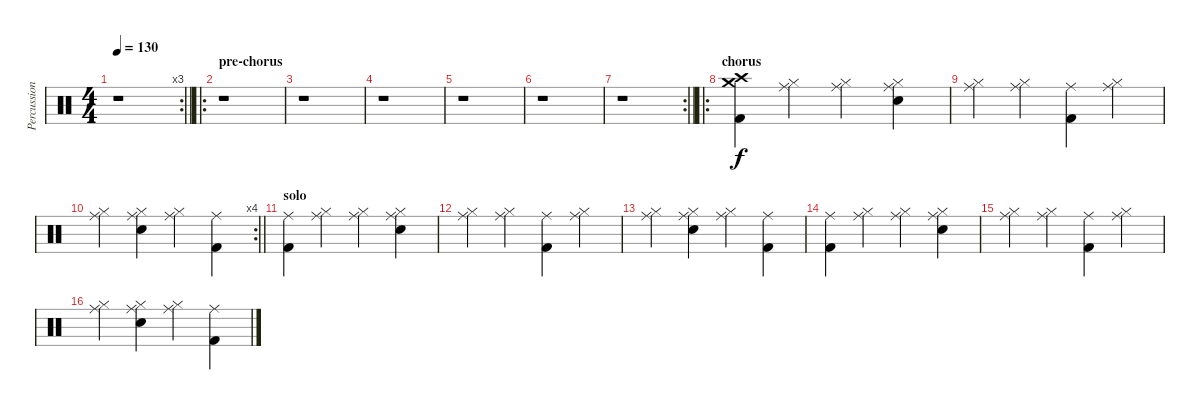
\track ("Percussion" "Percussion") {instrument percussion}
\staff {score}
\articulation defaults
\rc 3
\ts (4 4)
\tempo 130
\clef neutral
\barLineRight lightlight
\ks c
r.1{dy f} |
\ro
\section ("" "pre-chorus")
r.1 |
r.1 |
r.1 |
r.1 |
r.1 |
\rc 2
\barLineRight lightlight
r.1 |
\ro
\section ("" "chorus")
("Crash high (hit)" "Crash medium (hit)" "Kick (hit) 2").4 ("Ride (middle)" "Hi-Hat (closed)").4 ("Ride (middle)" "Hi-Hat (closed)").4 ("Ride (middle)" "Hi-Hat (closed)" "Electric Snare (hit)").4 |
("Ride (middle)" "Hi-Hat (closed)").4 ("Ride (middle)" "Hi-Hat (closed)").4 ("Ride (middle)" "Kick (hit) 2").4 ("Ride (middle)" "Hi-Hat (closed)").4 |
\rc 4
\barLineRight lightlight
("Ride (middle)" "Hi-Hat (closed)").4 ("Ride (middle)" "Hi-Hat (closed)" "Electric Snare (hit)").4 ("Ride (middle)" "Hi-Hat (closed)").4 ("Ride (middle)" "Kick (hit) 2").4 |
\section ("" "solo")
("Ride (middle)" "Kick (hit) 2").4 ("Ride (middle)" "Hi-Hat (closed)").4 ("Ride (middle)" "Hi-Hat (closed)").4 ("Ride (middle)" "Hi-Hat (closed)" "Electric Snare (hit)").4 |
("Ride (middle)" "Hi-Hat (closed)").4 ("Ride (middle)" "Hi-Hat (closed)").4 ("Ride (middle)" "Kick (hit) 2").4 ("Ride (middle)" "Hi-Hat (closed)").4 |
("Ride (middle)" "Hi-Hat (closed)").4 ("Ride (middle)" "Hi-Hat (closed)" "Electric Snare (hit)").4 ("Ride (middle)" "Hi-Hat (closed)").4 ("Ride (middle)" "Kick (hit) 2").4 |
("Ride (middle)" "Kick (hit) 2").4 ("Ride (middle)" "Hi-Hat (closed)").4 ("Ride (middle)" "Hi-Hat (closed)").4 ("Ride (middle)" "Hi-Hat (closed)" "Electric Snare (hit)").4 |
("Ride (middle)" "Hi-Hat (closed)").4 ("Ride (middle)" "Hi-Hat (closed)").4 ("Ride (middle)" "Kick (hit) 2").4 ("Ride (middle)" "Hi-Hat (closed)").4 |
("Ride (middle)" "Hi-Hat (closed)").4 ("Ride (middle)" "Hi-Hat (closed)" "Electric Snare (hit)").4 ("Ride (middle)" "Hi-Hat (closed)").4 ("Ride (middle)" "Kick (hit) 2").4
